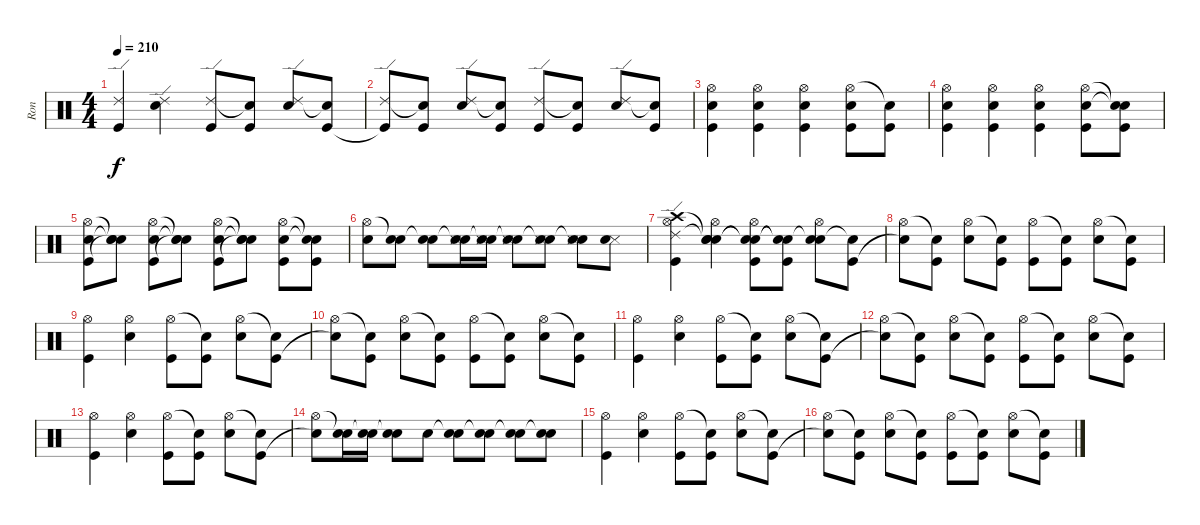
\track ("Ron" "Ron") {instrument percussion}
\staff {score}
\articulation defaults
\ts (4 4)
\tempo 210
\clef neutral
\ks c
("Ride (edge) 2" "Kick (hit)").4{dy f} ("Ride (edge) 2" "Electric Snare (hit)").4 ("Ride (edge) 2" "Kick (hit)").8 ("Snare (hit)"{t} "Kick (hit)").8 ("Ride (edge) 2" "Electric Snare (hit)").8 ("Snare (hit)"{t} "Kick (hit)").8 |
("Ride (edge) 2" "Kick (hit)"{t}).8 ("Snare (hit)"{t} "Kick (hit)").8 ("Ride (edge) 2" "Electric Snare (hit)").8 ("Snare (hit)"{t} "Kick (hit)").8 ("Ride (edge) 2" "Kick (hit)").8 ("Snare (hit)"{t} "Kick (hit)").8 ("Ride (edge) 2" "Electric Snare (hit)").8 ("Snare (hit)"{t} "Kick (hit)").8 |
("Hi-Hat (open)" "Electric Snare (hit)" "Kick (hit)").4 ("Hi-Hat (open)" "Electric Snare (hit)" "Kick (hit)").4 ("Hi-Hat (open)" "Electric Snare (hit)" "Kick (hit)").4 ("Hi-Hat (open)" "Electric Snare (hit)" "Kick (hit)").8 ("Snare (hit)"{t} "Kick (hit)").8 |
("Hi-Hat (open)" "Electric Snare (hit)" "Kick (hit)").4 ("Hi-Hat (open)" "Electric Snare (hit)" "Kick (hit)").4 ("Hi-Hat (open)" "Electric Snare (hit)" "Kick (hit)").4 ("Hi-Hat (open)" "Electric Snare (hit)" "Kick (hit)").8 ("Snare (hit)"{t} "Snare (hit)"{t} "Kick (hit)").8 |
("Hi-Hat (open)" "Electric Snare (hit)" "Kick (hit)").8 ("Snare (hit)"{t} "Snare (hit)"{t} "Snare (hit)"{t}).8 ("Hi-Hat (open)" "Electric Snare (hit)" "Kick (hit)").8 ("Snare (hit)"{t} "Snare (hit)"{t} "Snare (hit)"{t}).8 ("Hi-Hat (open)" "Electric Snare (hit)" "Kick (hit)").8 ("Snare (hit)"{t} "Snare (hit)"{t} "Snare (hit)"{t}).8 ("Hi-Hat (open)" "Electric Snare (hit)" "Kick (hit)").8 ("Snare (hit)"{t} "Snare (hit)"{t} "Kick (hit)").8 |
("Hi-Hat (open)" "Electric Snare (hit)").8 ("Snare (hit)"{t} "Electric Snare (hit)").8 ("Snare (hit)"{t} "Electric Snare (hit)").8 ("Snare (hit)"{t} "Metronome (hit)" "Electric Snare (hit)").16 ("Snare (hit)"{t} "Metronome (hit)" "Electric Snare (hit)").16 ("Snare (hit)"{t} "Metronome (hit)" "Electric Snare (hit)").8 ("Snare (hit)"{t} "Metronome (hit)" "Electric Snare (hit)").8 ("Snare (hit)"{t} "Metronome (hit)" "Electric Snare (hit)").8 ("Metronome (hit)" "Electric Snare (hit)").8 |
("Crash high (hit)" "Ride (edge) 2" "Hi-Hat (open)" "Kick (hit)").4 ("Snare (hit)"{t} "Snare (hit)"{t} "Hi-Hat (open)" "Electric Snare (hit)").4 ("Snare (hit)"{t} "Snare (hit)"{t} "Hi-Hat (open)" "Kick (hit)").8 ("Snare (hit)"{t} "Snare (hit)"{t} "Kick (hit)").8 ("Snare (hit)"{t} "Hi-Hat (open)" "Electric Snare (hit)").8 ("Snare (hit)"{t} "Kick (hit)").8 |
("Hi-Hat (open)" "Snare (hit)"{t}).8 ("Snare (hit)"{t} "Kick (hit)").8 ("Hi-Hat (open)" "Electric Snare (hit)").8 ("Snare (hit)"{t} "Kick (hit)").8 ("Hi-Hat (open)" "Kick (hit)").8 ("Snare (hit)"{t} "Kick (hit)").8 ("Hi-Hat (open)" "Electric Snare (hit)").8 ("Snare (hit)"{t} "Kick (hit)").8 |
("Hi-Hat (open)" "Kick (hit)").4 ("Hi-Hat (open)" "Electric Snare (hit)").4 ("Hi-Hat (open)" "Kick (hit)").8 ("Snare (hit)"{t} "Kick (hit)").8 ("Hi-Hat (open)" "Electric Snare (hit)").8 ("Snare (hit)"{t} "Kick (hit)").8 |
("Hi-Hat (open)" "Snare (hit)"{t}).8 ("Snare (hit)"{t} "Kick (hit)").8 ("Hi-Hat (open)" "Electric Snare (hit)").8 ("Snare (hit)"{t} "Kick (hit)").8 ("Hi-Hat (open)" "Kick (hit)").8 ("Snare (hit)"{t} "Kick (hit)").8 ("Hi-Hat (open)" "Electric Snare (hit)").8 ("Snare (hit)"{t} "Kick (hit)").8 |
("Hi-Hat (open)" "Kick (hit)").4 ("Hi-Hat (open)" "Electric Snare (hit)").4 ("Hi-Hat (open)" "Kick (hit)").8 ("Snare (hit)"{t} "Kick (hit)").8 ("Hi-Hat (open)" "Electric Snare (hit)").8 ("Snare (hit)"{t} "Kick (hit)").8 |
("Hi-Hat (open)" "Snare (hit)"{t}).8 ("Snare (hit)"{t} "Kick (hit)").8 ("Hi-Hat (open)" "Electric Snare (hit)").8 ("Snare (hit)"{t} "Kick (hit)").8 ("Hi-Hat (open)" "Kick (hit)").8 ("Snare (hit)"{t} "Kick (hit)").8 ("Hi-Hat (open)" "Electric Snare (hit)").8 ("Snare (hit)"{t} "Kick (hit)").8 |
("Hi-Hat (open)" "Kick (hit)").4 ("Hi-Hat (open)" "Electric Snare (hit)").4 ("Hi-Hat (open)" "Kick (hit)").8 ("Snare (hit)"{t} "Kick (hit)").8 ("Hi-Hat (open)" "Electric Snare (hit)").8 ("Snare (hit)"{t} "Kick (hit)").8 |
("Hi-Hat (open)" "Snare (hit)"{t}).8 ("Snare (hit)"{t} "Electric Snare (hit)").16 ("Snare (hit)"{t} "Electric Snare (hit)").16 ("Snare (hit)"{t} "Electric Snare (hit)").8 "Electric Snare (hit)".8 ("Snare (hit)"{t} "Electric Snare (hit)").8 ("Snare (hit)"{t} "Electric Snare (hit)").8 ("Snare (hit)"{t} "Electric Snare (hit)").8 ("Snare (hit)"{t} "Electric Snare (hit)").8 |
("Hi-Hat (open)" "Kick (hit)").4 ("Hi-Hat (open)" "Electric Snare (hit)").4 ("Hi-Hat (open)" "Kick (hit)").8 ("Snare (hit)"{t} "Kick (hit)").8 ("Hi-Hat (open)" "Electric Snare (hit)").8 ("Snare (hit)"{t} "Kick (hit)").8 |
("Hi-Hat (open)" "Snare (hit)"{t}).8 ("Snare (hit)"{t} "Kick (hit)").8 ("Hi-Hat (open)" "Electric Snare (hit)").8 ("Snare (hit)"{t} "Kick (hit)").8 ("Hi-Hat (open)" "Kick (hit)").8 ("Snare (hit)"{t} "Kick (hit)").8 ("Hi-Hat (open)" "Electric Snare (hit)").8 ("Snare (hit)"{t} "Kick (hit)").8
